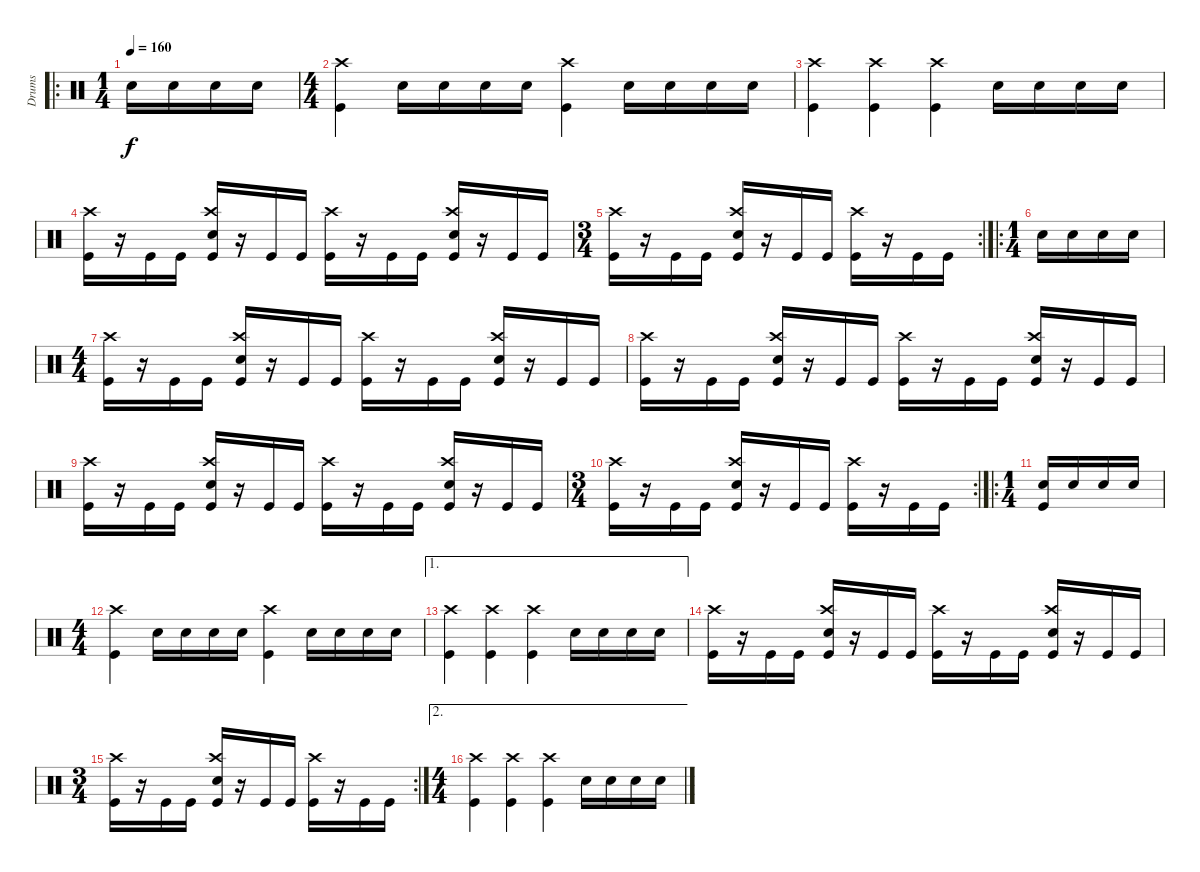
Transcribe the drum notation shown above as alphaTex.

\track ("Drums" "Drums") {instrument percussion}
\staff {score}
\articulation defaults
\ro
\ts (1 4)
\tempo 160
\clef neutral
\ks c "Electric Snare (hit)".16{dy f} "Electric Snare (hit)".16 "Electric Snare (hit)".16 "Electric Snare (hit)".16
|
\ts (4 4)
("Crash high (hit)" "Kick (hit)").4 "Electric Snare (hit)".16 "Electric Snare (hit)".16 "Electric Snare (hit)".16 "Electric Snare (hit)".16 ("Crash high (hit)" "Kick (hit)").4 "Electric Snare (hit)".16 "Electric Snare (hit)".16 "Electric Snare (hit)".16 "Electric Snare (hit)".16 |
("Crash high (hit)" "Kick (hit)").4 ("Crash high (hit)" "Kick (hit)").4 ("Crash high (hit)" "Kick (hit)").4 "Electric Snare (hit)".16 "Electric Snare (hit)".16 "Electric Snare (hit)".16 "Electric Snare (hit)".16 |
("Crash high (hit)" "Kick (hit)").16 r.16 "Kick (hit)".16 "Kick (hit)".16 ("Crash high (hit)" "Electric Snare (hit)" "Kick (hit)").16 r.16 "Kick (hit)".16 "Kick (hit)".16 ("Crash high (hit)" "Kick (hit)").16 r.16 "Kick (hit)".16 "Kick (hit)".16 ("Crash high (hit)" "Electric Snare (hit)" "Kick (hit)").16 r.16 "Kick (hit)".16 "Kick (hit)".16 |
\rc 2
\ts (3 4)
("Crash high (hit)" "Kick (hit)").16 r.16 "Kick (hit)".16 "Kick (hit)".16 ("Crash high (hit)" "Electric Snare (hit)" "Kick (hit)").16 r.16 "Kick (hit)".16 "Kick (hit)".16 ("Crash high (hit)" "Kick (hit)").16 r.16 "Kick (hit)".16 "Kick (hit)".16 |
\ro
\ts (1 4)
"Electric Snare (hit)".16 "Electric Snare (hit)".16 "Electric Snare (hit)".16 "Electric Snare (hit)".16 |
\ts (4 4)
("Crash high (hit)" "Kick (hit)").16 r.16 "Kick (hit)".16 "Kick (hit)".16 ("Crash high (hit)" "Electric Snare (hit)" "Kick (hit)").16 r.16 "Kick (hit)".16 "Kick (hit)".16 ("Crash high (hit)" "Kick (hit)").16 r.16 "Kick (hit)".16 "Kick (hit)".16 ("Crash high (hit)" "Electric Snare (hit)" "Kick (hit)").16 r.16 "Kick (hit)".16 "Kick (hit)".16 |
("Crash high (hit)" "Kick (hit)").16 r.16 "Kick (hit)".16 "Kick (hit)".16 ("Crash high (hit)" "Electric Snare (hit)" "Kick (hit)").16 r.16 "Kick (hit)".16 "Kick (hit)".16 ("Crash high (hit)" "Kick (hit)").16 r.16 "Kick (hit)".16 "Kick (hit)".16 ("Crash high (hit)" "Electric Snare (hit)" "Kick (hit)").16 r.16 "Kick (hit)".16 "Kick (hit)".16 |
("Crash high (hit)" "Kick (hit)").16 r.16 "Kick (hit)".16 "Kick (hit)".16 ("Crash high (hit)" "Electric Snare (hit)" "Kick (hit)").16 r.16 "Kick (hit)".16 "Kick (hit)".16 ("Crash high (hit)" "Kick (hit)").16 r.16 "Kick (hit)".16 "Kick (hit)".16 ("Crash high (hit)" "Electric Snare (hit)" "Kick (hit)").16 r.16 "Kick (hit)".16 "Kick (hit)".16 |
\rc 2
\ts (3 4)
("Crash high (hit)" "Kick (hit)").16 r.16 "Kick (hit)".16 "Kick (hit)".16 ("Crash high (hit)" "Electric Snare (hit)" "Kick (hit)").16 r.16 "Kick (hit)".16 "Kick (hit)".16 ("Crash high (hit)" "Kick (hit)").16 r.16 "Kick (hit)".16 "Kick (hit)".16 |
\ro
\ts (1 4)
("Electric Snare (hit)" "Kick (hit)").16 "Electric Snare (hit)".16 "Electric Snare (hit)".16 "Electric Snare (hit)".16 |
\ts (4 4)
("Crash high (hit)" "Kick (hit)").4 "Electric Snare (hit)".16 "Electric Snare (hit)".16 "Electric Snare (hit)".16 "Electric Snare (hit)".16 ("Crash high (hit)" "Kick (hit)").4 "Electric Snare (hit)".16 "Electric Snare (hit)".16 "Electric Snare (hit)".16 "Electric Snare (hit)".16 |
\ae 1
("Crash high (hit)" "Kick (hit)").4 ("Crash high (hit)" "Kick (hit)").4 ("Crash high (hit)" "Kick (hit)").4 "Electric Snare (hit)".16 "Electric Snare (hit)".16 "Electric Snare (hit)".16 "Electric Snare (hit)".16 |
("Crash high (hit)" "Kick (hit)").16 r.16 "Kick (hit)".16 "Kick (hit)".16 ("Crash high (hit)" "Electric Snare (hit)" "Kick (hit)").16 r.16 "Kick (hit)".16 "Kick (hit)".16 ("Crash high (hit)" "Kick (hit)").16 r.16 "Kick (hit)".16 "Kick (hit)".16 ("Crash high (hit)" "Electric Snare (hit)" "Kick (hit)").16 r.16 "Kick (hit)".16 "Kick (hit)".16 |
\rc 2
\ts (3 4)
("Crash high (hit)" "Kick (hit)").16 r.16 "Kick (hit)".16 "Kick (hit)".16 ("Crash high (hit)" "Electric Snare (hit)" "Kick (hit)").16 r.16 "Kick (hit)".16 "Kick (hit)".16 ("Crash high (hit)" "Kick (hit)").16 r.16 "Kick (hit)".16 "Kick (hit)".16 |
\ae 2
\ts (4 4)
("Crash high (hit)" "Kick (hit)").4 ("Crash high (hit)" "Kick (hit)").4 ("Crash high (hit)" "Kick (hit)").4 "Electric Snare (hit)".16 "Electric Snare (hit)".16 "Electric Snare (hit)".16 "Electric Snare (hit)".16
